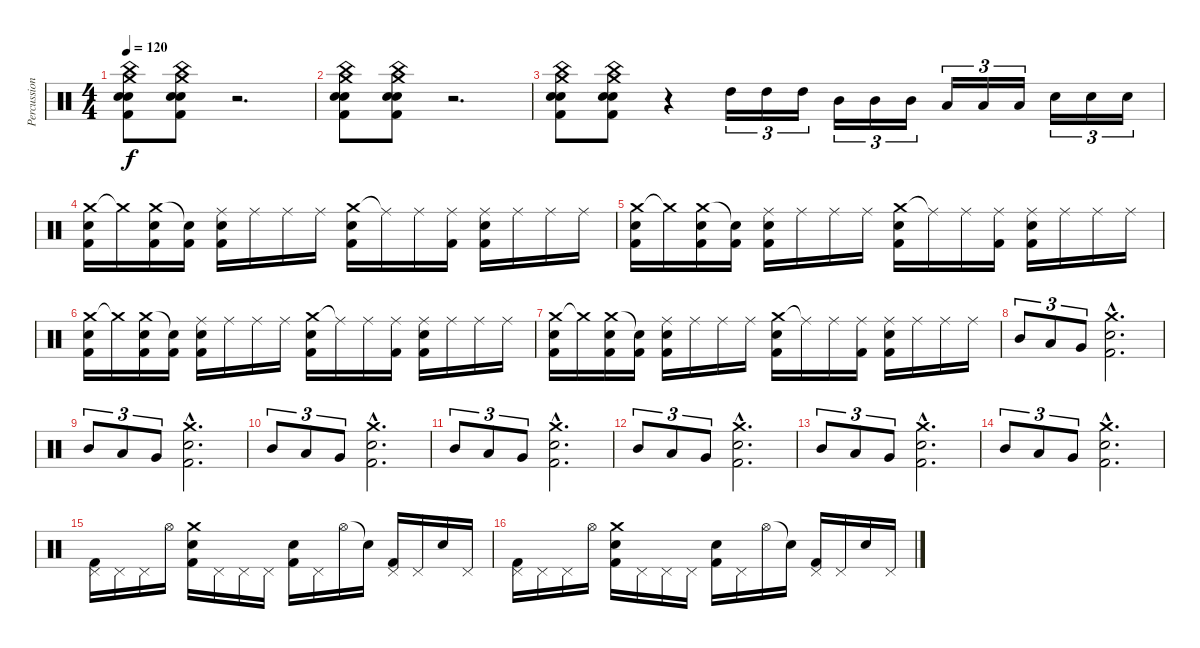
\track ("Percussion" "Percussion") {instrument percussion}
\staff {score}
\articulation defaults
\ts (4 4)
\tempo 120
\clef neutral
\ks c
("China (hit)" "Crash medium (hit)" "Snare (hit) 2" "Kick (hit) 2" "Metronome (bell)").8{dy f} ("China (hit)" "Crash medium (hit)" "Snare (hit) 2" "Kick (hit) 2" "Metronome (bell)").8 r.2{d} |
("China (hit)" "Crash medium (hit)" "Snare (hit) 2" "Kick (hit) 2" "Metronome (bell)").8 ("China (hit)" "Crash medium (hit)" "Snare (hit) 2" "Kick (hit) 2" "Metronome (bell)").8 r.2{d} |
("China (hit)" "Crash medium (hit)" "Snare (hit) 2" "Kick (hit) 2" "Metronome (bell)").8 ("China (hit)" "Crash medium (hit)" "Snare (hit) 2" "Kick (hit) 2" "Metronome (bell)").8 r.4 "High Tom (hit)".16{tu (3 2)} "High Tom (hit)".16{tu (3 2)} "High Tom (hit)".16{tu (3 2)} "Mid Tom (hit)".16{tu (3 2)} "Mid Tom (hit)".16{tu (3 2)} "Mid Tom (hit)".16{tu (3 2)} "Low Tom (hit)".16{tu (3 2)} "Low Tom (hit)".16{tu (3 2)} "Low Tom (hit)".16{tu (3 2)} "Electric Snare (hit)".16{tu (3 2)} "Electric Snare (hit)".16{tu (3 2)} "Electric Snare (hit)".16{tu (3 2)} |
("Crash medium (hit)" "Snare (hit) 2" "Kick (hit) 2").16{balance 8} "Crash medium (hit)"{t}.16 ("Crash medium (hit)" "Snare (hit) 2" "Kick (hit) 2").16 ("Snare (hit)"{t} "Kick (hit) 2").16 ("Ride (middle)" "Snare (hit) 2" "Kick (hit) 2").16 "Ride (middle)".16 "Ride (middle)".16 "Ride (middle)".16 ("Crash medium (hit)" "Snare (hit) 2" "Kick (hit) 2").16 "Ride (middle)"{t}.16 "Ride (middle)".16 ("Ride (middle)" "Kick (hit) 2").16 ("Ride (middle)" "Snare (hit) 2" "Kick (hit) 2").16 "Ride (middle)".16 "Ride (middle)".16 "Ride (middle)".16 |
("Crash medium (hit)" "Snare (hit) 2" "Kick (hit) 2").16 "Crash medium (hit)"{t}.16 ("Crash medium (hit)" "Snare (hit) 2" "Kick (hit) 2").16 ("Snare (hit)"{t} "Kick (hit) 2").16 ("Ride (middle)" "Snare (hit) 2" "Kick (hit) 2").16 "Ride (middle)".16 "Ride (middle)".16 "Ride (middle)".16 ("Crash medium (hit)" "Snare (hit) 2" "Kick (hit) 2").16 "Ride (middle)"{t}.16 "Ride (middle)".16 ("Ride (middle)" "Kick (hit) 2").16 ("Ride (middle)" "Snare (hit) 2" "Kick (hit) 2").16 "Ride (middle)".16 "Ride (middle)".16 "Ride (middle)".16 |
("Crash medium (hit)" "Snare (hit) 2" "Kick (hit) 2").16{balance 8} "Crash medium (hit)"{t}.16 ("Crash medium (hit)" "Snare (hit) 2" "Kick (hit) 2").16 ("Snare (hit)"{t} "Kick (hit) 2").16 ("Ride (middle)" "Snare (hit) 2" "Kick (hit) 2").16 "Ride (middle)".16 "Ride (middle)".16 "Ride (middle)".16 ("Crash medium (hit)" "Snare (hit) 2" "Kick (hit) 2").16 "Ride (middle)"{t}.16 "Ride (middle)".16 ("Ride (middle)" "Kick (hit) 2").16 ("Ride (middle)" "Snare (hit) 2" "Kick (hit) 2").16 "Ride (middle)".16 "Ride (middle)".16 "Ride (middle)".16 |
("Crash medium (hit)" "Snare (hit) 2" "Kick (hit) 2").16 "Crash medium (hit)"{t}.16 ("Crash medium (hit)" "Snare (hit) 2" "Kick (hit) 2").16 ("Snare (hit)"{t} "Kick (hit) 2").16 ("Ride (middle)" "Snare (hit) 2" "Kick (hit) 2").16 "Ride (middle)".16 "Ride (middle)".16 "Ride (middle)".16 ("Crash medium (hit)" "Snare (hit) 2" "Kick (hit) 2").16 "Ride (middle)"{t}.16 "Ride (middle)".16 ("Ride (middle)" "Kick (hit) 2").16 ("Ride (middle)" "Snare (hit) 2" "Kick (hit) 2").16 "Ride (middle)".16 "Ride (middle)".16 "Ride (middle)".16 |
"Mid Tom (hit)".8{tu (3 2)} "Low Tom (hit)".8{tu (3 2)} "Very Low Tom (hit)".8{tu (3 2)} ("Crash medium (hit)"{hac} "Snare (hit) 2"{hac} "Kick (hit) 2"{hac}).2{d} |
"Mid Tom (hit)".8{tu (3 2)} "Low Tom (hit)".8{tu (3 2)} "Very Low Tom (hit)".8{tu (3 2)} ("Crash medium (hit)"{hac} "Snare (hit) 2"{hac} "Kick (hit) 2"{hac}).2{d} |
"Mid Tom (hit)".8{tu (3 2)} "Low Tom (hit)".8{tu (3 2)} "Very Low Tom (hit)".8{tu (3 2)} ("Crash medium (hit)"{hac} "Snare (hit) 2"{hac} "Kick (hit) 2"{hac}).2{d} |
"Mid Tom (hit)".8{tu (3 2)} "Low Tom (hit)".8{tu (3 2)} "Very Low Tom (hit)".8{tu (3 2)} ("Crash medium (hit)"{hac} "Snare (hit) 2"{hac} "Kick (hit) 2"{hac}).2{d} |
"Mid Tom (hit)".8{tu (3 2)} "Low Tom (hit)".8{tu (3 2)} "Very Low Tom (hit)".8{tu (3 2)} ("Crash medium (hit)"{hac} "Snare (hit) 2"{hac} "Kick (hit) 2"{hac}).2{d} |
"Mid Tom (hit)".8{tu (3 2)} "Low Tom (hit)".8{tu (3 2)} "Very Low Tom (hit)".8{tu (3 2)} ("Crash medium (hit)"{hac} "Snare (hit) 2"{hac} "Kick (hit) 2"{hac}).2{d} |
"Mid Tom (hit)".8{tu (3 2)} "Low Tom (hit)".8{tu (3 2)} "Very Low Tom (hit)".8{tu (3 2)} ("Crash medium (hit)"{hac} "Snare (hit) 2"{hac} "Kick (hit) 2"{hac}).2{d} |
("Pedal Hi-Hat (hit)" "Kick (hit) 2").16 "Pedal Hi-Hat (hit)".16 "Pedal Hi-Hat (hit)".16 "Hi-Hat (open)".16 ("Crash medium (hit)" "Snare (hit) 2" "Kick (hit) 2").16 "Pedal Hi-Hat (hit)".16 "Pedal Hi-Hat (hit)".16 "Pedal Hi-Hat (hit)".16 ("Snare (hit) 2" "Kick (hit) 2").16 "Pedal Hi-Hat (hit)".16 "Hi-Hat (open)".16 "Snare (hit)"{t}.16 ("Pedal Hi-Hat (hit)" "Kick (hit) 2").16 "Pedal Hi-Hat (hit)".16 "Snare (hit) 2".16 "Pedal Hi-Hat (hit)".16 |
("Pedal Hi-Hat (hit)" "Kick (hit) 2").16 "Pedal Hi-Hat (hit)".16 "Pedal Hi-Hat (hit)".16 "Hi-Hat (open)".16 ("Crash medium (hit)" "Snare (hit) 2" "Kick (hit) 2").16 "Pedal Hi-Hat (hit)".16 "Pedal Hi-Hat (hit)".16 "Pedal Hi-Hat (hit)".16 ("Snare (hit) 2" "Kick (hit) 2").16 "Pedal Hi-Hat (hit)".16 "Hi-Hat (open)".16 "Snare (hit)"{t}.16 ("Pedal Hi-Hat (hit)" "Kick (hit) 2").16 "Pedal Hi-Hat (hit)".16 "Snare (hit) 2".16 "Pedal Hi-Hat (hit)".16
